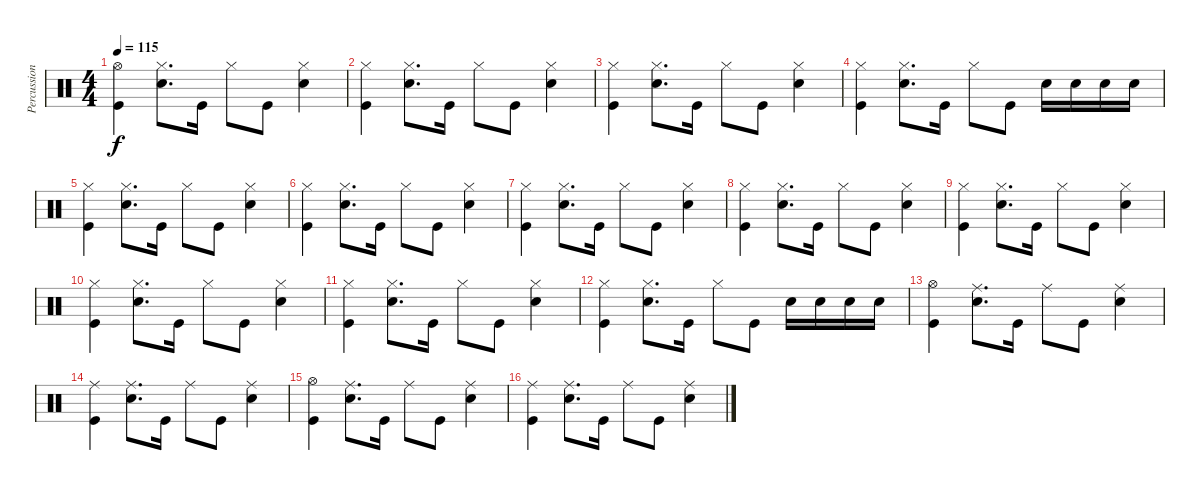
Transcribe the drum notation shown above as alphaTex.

\track ("Percussion 1" "Percussion") {instrument percussion}
\staff {score}
\articulation defaults
\ts (4 4)
\tempo 115
\clef neutral
\ks c
("Hi-Hat (open)" "Kick (hit)").4{dy f} ("Hi-Hat (closed)" "Snare (hit) 2").8{d} "Kick (hit)".16 "Hi-Hat (closed)".8 "Kick (hit)".8 ("Hi-Hat (closed)" "Snare (hit) 2").4 |
("Kick (hit)" "Hi-Hat (closed)").4 ("Hi-Hat (closed)" "Snare (hit) 2").8{d} "Kick (hit)".16 "Hi-Hat (closed)".8 "Kick (hit)".8 ("Hi-Hat (closed)" "Snare (hit) 2").4 |
("Kick (hit)" "Hi-Hat (closed)").4 ("Hi-Hat (closed)" "Snare (hit) 2").8{d} "Kick (hit)".16 "Hi-Hat (closed)".8 "Kick (hit)".8 ("Hi-Hat (closed)" "Snare (hit) 2").4 |
("Kick (hit)" "Hi-Hat (closed)").4 ("Hi-Hat (closed)" "Snare (hit) 2").8{d} "Kick (hit)".16 "Hi-Hat (closed)".8 "Kick (hit)".8 "Snare (hit) 2".16 "Snare (hit) 2".16 "Snare (hit) 2".16 "Snare (hit) 2".16 |
("Kick (hit)" "Hi-Hat (closed)").4 ("Hi-Hat (closed)" "Snare (hit) 2").8{d} "Kick (hit)".16 "Hi-Hat (closed)".8 "Kick (hit)".8 ("Hi-Hat (closed)" "Snare (hit) 2").4 |
("Kick (hit)" "Hi-Hat (closed)").4 ("Hi-Hat (closed)" "Snare (hit) 2").8{d} "Kick (hit)".16 "Hi-Hat (closed)".8 "Kick (hit)".8 ("Hi-Hat (closed)" "Snare (hit) 2").4 |
("Kick (hit)" "Hi-Hat (closed)").4 ("Hi-Hat (closed)" "Snare (hit) 2").8{d} "Kick (hit)".16 "Hi-Hat (closed)".8 "Kick (hit)".8 ("Hi-Hat (closed)" "Snare (hit) 2").4 |
("Kick (hit)" "Hi-Hat (closed)").4 ("Hi-Hat (closed)" "Snare (hit) 2").8{d} "Kick (hit)".16 "Hi-Hat (closed)".8 "Kick (hit)".8 ("Hi-Hat (closed)" "Snare (hit) 2").4 |
("Kick (hit)" "Hi-Hat (closed)").4 ("Hi-Hat (closed)" "Snare (hit) 2").8{d} "Kick (hit)".16 "Hi-Hat (closed)".8 "Kick (hit)".8 ("Hi-Hat (closed)" "Snare (hit) 2").4 |
("Kick (hit)" "Hi-Hat (closed)").4 ("Hi-Hat (closed)" "Snare (hit) 2").8{d} "Kick (hit)".16 "Hi-Hat (closed)".8 "Kick (hit)".8 ("Hi-Hat (closed)" "Snare (hit) 2").4 |
("Kick (hit)" "Hi-Hat (closed)").4 ("Hi-Hat (closed)" "Snare (hit) 2").8{d} "Kick (hit)".16 "Hi-Hat (closed)".8 "Kick (hit)".8 ("Hi-Hat (closed)" "Snare (hit) 2").4 |
("Kick (hit)" "Hi-Hat (closed)").4 ("Hi-Hat (closed)" "Snare (hit) 2").8{d} "Kick (hit)".16 "Hi-Hat (closed)".8 "Kick (hit)".8 "Snare (hit) 2".16 "Snare (hit) 2".16 "Snare (hit) 2".16 "Snare (hit) 2".16 |
("Hi-Hat (open)" "Kick (hit)").4 ("Ride (middle)" "Snare (hit) 2").8{d} "Kick (hit)".16 "Ride (middle)".8 "Kick (hit)".8 ("Ride (middle)" "Snare (hit) 2").4 |
("Ride (middle)" "Kick (hit)").4 ("Ride (middle)" "Snare (hit) 2").8{d} "Kick (hit)".16 "Ride (middle)".8 "Kick (hit)".8 ("Ride (middle)" "Snare (hit) 2").4 |
("Hi-Hat (open)" "Kick (hit)").4 ("Ride (middle)" "Snare (hit) 2").8{d} "Kick (hit)".16 "Ride (middle)".8 "Kick (hit)".8 ("Ride (middle)" "Snare (hit) 2").4 |
("Ride (middle)" "Kick (hit)").4 ("Ride (middle)" "Snare (hit) 2").8{d} "Kick (hit)".16 "Ride (middle)".8 "Kick (hit)".8 ("Ride (middle)" "Snare (hit) 2").4
